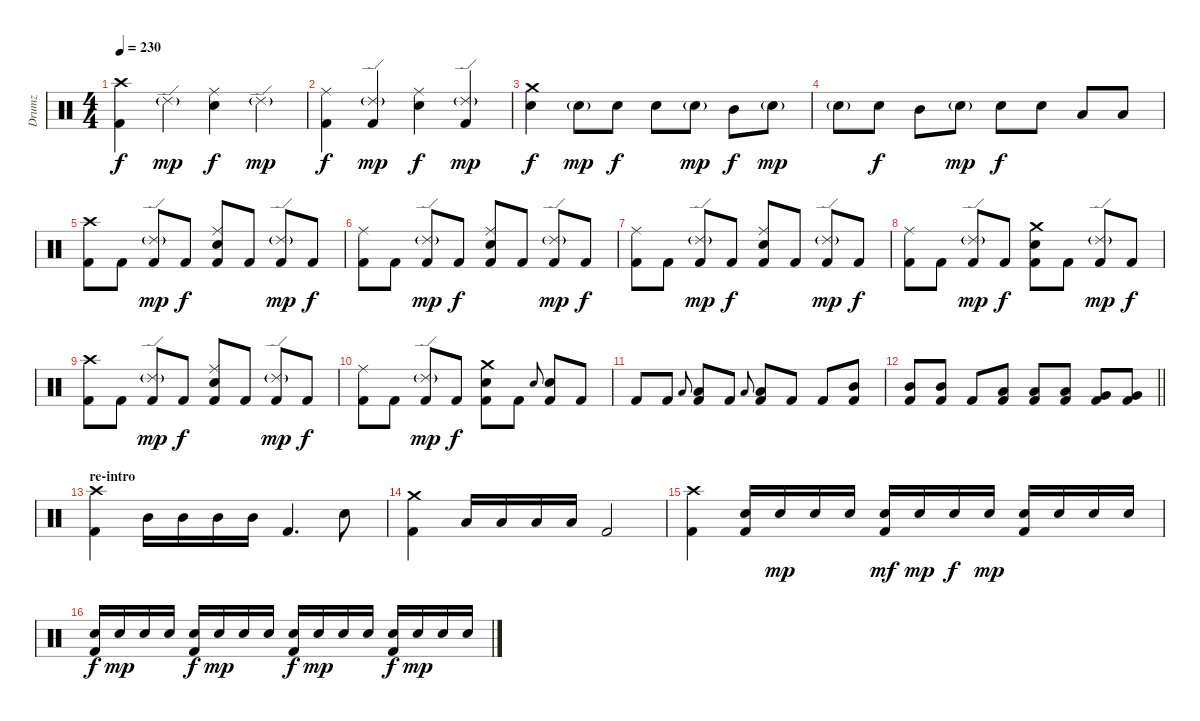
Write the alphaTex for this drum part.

\track ("Drumz" "Drumz") {instrument percussion}
\staff {score}
\articulation defaults
\ts (4 4)
\tempo 230
\clef neutral
\ks c
("Crash high (hit)" "Kick (hit) 2").4{dy f} "Ride (edge) 2"{g}.4{dy mp} ("Ride (middle)" "Electric Snare (hit)").4{dy f} "Ride (edge) 2"{g}.4{dy mp} |
("Ride (middle)" "Kick (hit) 2").4{dy f} ("Ride (edge) 2"{g} "Kick (hit) 2").4{dy mp} ("Ride (middle)" "Electric Snare (hit)").4{dy f} ("Ride (edge) 2"{g} "Kick (hit) 2").4{dy mp} |
("Crash medium (hit)" "Electric Snare (hit)").4{dy f} "Electric Snare (hit)"{g}.8{dy mp} "Electric Snare (hit)".8{dy f} "Electric Snare (hit)".8 "Electric Snare (hit)"{g}.8{dy mp} "Mid Tom (hit)".8{dy f} "Electric Snare (hit)"{g}.8{dy mp} |
"Electric Snare (hit)"{g}.8 "Electric Snare (hit)".8{dy f} "Mid Tom (hit)".8 "Electric Snare (hit)"{g}.8{dy mp} "Electric Snare (hit)".8{dy f} "Electric Snare (hit)".8 "Low Tom (hit)".8 "Low Tom (hit)".8 |
("Crash high (hit)" "Kick (hit) 2").8 "Kick (hit) 2".8 ("Ride (edge) 2"{g} "Kick (hit) 2").8{dy mp} "Kick (hit) 2".8{dy f} ("Ride (middle)" "Electric Snare (hit)" "Kick (hit) 2").8 "Kick (hit) 2".8 ("Ride (edge) 2"{g} "Kick (hit) 2").8{dy mp} "Kick (hit) 2".8{dy f} |
("Ride (middle)" "Kick (hit) 2").8 "Kick (hit) 2".8 ("Ride (edge) 2"{g} "Kick (hit) 2").8{dy mp} "Kick (hit) 2".8{dy f} ("Ride (middle)" "Electric Snare (hit)" "Kick (hit) 2").8 "Kick (hit) 2".8 ("Ride (edge) 2"{g} "Kick (hit) 2").8{dy mp} "Kick (hit) 2".8{dy f} |
("Ride (middle)" "Kick (hit) 2").8 "Kick (hit) 2".8 ("Ride (edge) 2"{g} "Kick (hit) 2").8{dy mp} "Kick (hit) 2".8{dy f} ("Ride (middle)" "Electric Snare (hit)" "Kick (hit) 2").8 "Kick (hit) 2".8 ("Ride (edge) 2"{g} "Kick (hit) 2").8{dy mp} "Kick (hit) 2".8{dy f} |
("Ride (middle)" "Kick (hit) 2").8 "Kick (hit) 2".8 ("Ride (edge) 2"{g} "Kick (hit) 2").8{dy mp} "Kick (hit) 2".8{dy f} ("Crash medium (hit)" "Electric Snare (hit)" "Kick (hit) 2").8 "Kick (hit) 2".8 ("Ride (edge) 2"{g} "Kick (hit) 2").8{dy mp} "Kick (hit) 2".8{dy f} |
("Crash high (hit)" "Kick (hit) 2").8 "Kick (hit) 2".8 ("Ride (edge) 2"{g} "Kick (hit) 2").8{dy mp} "Kick (hit) 2".8{dy f} ("Ride (middle)" "Electric Snare (hit)" "Kick (hit) 2").8 "Kick (hit) 2".8 ("Ride (edge) 2"{g} "Kick (hit) 2").8{dy mp} "Kick (hit) 2".8{dy f} |
("Ride (middle)" "Kick (hit) 2").8 "Kick (hit) 2".8 ("Ride (edge) 2"{g} "Kick (hit) 2").8{dy mp} "Kick (hit) 2".8{dy f} ("Crash medium (hit)" "Electric Snare (hit)" "Kick (hit) 2").8 "Kick (hit) 2".8 "Electric Snare (hit)".8{gr onbeat} ("Electric Snare (hit)" "Kick (hit) 2").8 "Kick (hit) 2".8 |
"Kick (hit) 2".8 "Kick (hit) 2".8 "Low Tom (hit)".8{gr onbeat} ("Low Tom (hit)" "Kick (hit) 2").8 "Kick (hit) 2".8 "Low Tom (hit)".8{gr onbeat} ("Low Tom (hit)" "Kick (hit) 2").8 "Kick (hit) 2".8 "Kick (hit) 2".8 ("Mid Tom (hit)" "Kick (hit) 2").8 |
\barLineRight lightlight
("Mid Tom (hit)" "Kick (hit) 2").8 ("Mid Tom (hit)" "Kick (hit) 2").8 "Kick (hit) 2".8 ("Low Tom (hit)" "Kick (hit) 2").8 ("Low Tom (hit)" "Kick (hit) 2").8 ("Low Tom (hit)" "Kick (hit) 2").8 ("Very Low Tom (hit)" "Kick (hit) 2").8 ("Very Low Tom (hit)" "Kick (hit) 2").8 |
\section ("" "re-intro")
("Crash high (hit)" "Kick (hit) 2").4 "Mid Tom (hit)".16 "Mid Tom (hit)".16 "Mid Tom (hit)".16 "Mid Tom (hit)".16 "Kick (hit) 2".4{d} "Electric Snare (hit)".8 |
("Crash medium (hit)" "Kick (hit) 2").4 "Low Tom (hit)".16 "Low Tom (hit)".16 "Low Tom (hit)".16 "Low Tom (hit)".16 "Kick (hit) 2".2 |
("Crash high (hit)" "Kick (hit) 2").4 ("Electric Snare (hit)" "Kick (hit) 2").16 "Electric Snare (hit)".16{dy mp} "Electric Snare (hit)".16 "Electric Snare (hit)".16 ("Electric Snare (hit)" "Kick (hit) 2").16{dy mf} "Electric Snare (hit)".16{dy mp} "Electric Snare (hit)".16{dy f} "Electric Snare (hit)".16{dy mp} ("Electric Snare (hit)" "Kick (hit) 2").16 "Electric Snare (hit)".16 "Electric Snare (hit)".16 "Electric Snare (hit)".16 |
("Electric Snare (hit)" "Kick (hit) 2").16{dy f} "Electric Snare (hit)".16{dy mp} "Electric Snare (hit)".16 "Electric Snare (hit)".16 ("Electric Snare (hit)" "Kick (hit) 2").16{dy f} "Electric Snare (hit)".16{dy mp} "Electric Snare (hit)".16 "Electric Snare (hit)".16 ("Electric Snare (hit)" "Kick (hit) 2").16{dy f} "Electric Snare (hit)".16{dy mp} "Electric Snare (hit)".16 "Electric Snare (hit)".16 ("Electric Snare (hit)" "Kick (hit) 2").16{dy f} "Electric Snare (hit)".16{dy mp} "Electric Snare (hit)".16 "Electric Snare (hit)".16
